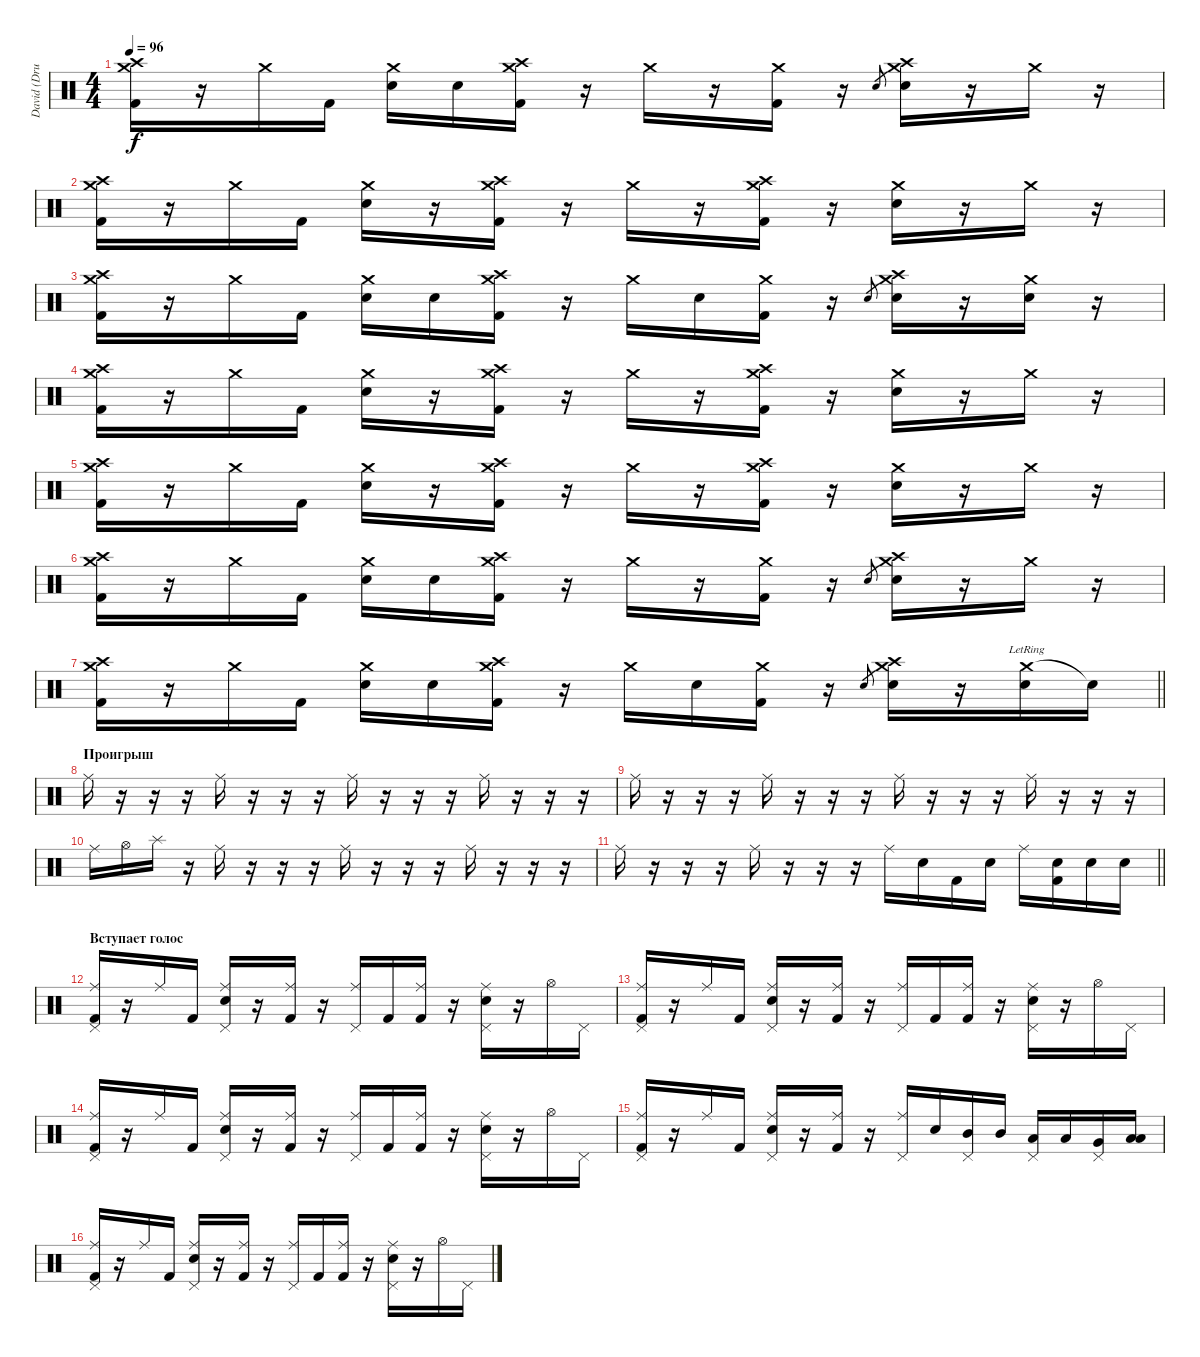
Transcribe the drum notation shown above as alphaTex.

\track ("David (Drums)" "David (Dru") {instrument percussion}
\staff {score}
\articulation defaults
\ts (4 4)
\tempo 96
\clef neutral
\ks c
("Crash high (hit)" "Crash medium (hit)" "Kick (hit) 2").16{dy f} r.16 "Crash medium (hit)".16 "Kick (hit) 2".16 ("Crash medium (hit)" "Electric Snare (hit)").16 "Electric Snare (hit)".16 ("Crash high (hit)" "Crash medium (hit)" "Kick (hit) 2").16 r.16 "Crash medium (hit)".16 r.16 ("Crash medium (hit)" "Kick (hit) 2").16 r.16 "Electric Snare (hit)".8{gr} ("Crash high (hit)" "Crash medium (hit)" "Electric Snare (hit)").16 r.16 "Crash medium (hit)".16 r.16 |
("Crash high (hit)" "Crash medium (hit)" "Kick (hit) 2").16 r.16 "Crash medium (hit)".16 "Kick (hit) 2".16 ("Crash medium (hit)" "Electric Snare (hit)").16 r.16 ("Crash high (hit)" "Crash medium (hit)" "Kick (hit) 2").16 r.16 "Crash medium (hit)".16 r.16 ("Crash high (hit)" "Crash medium (hit)" "Kick (hit) 2").16 r.16 ("Crash medium (hit)" "Electric Snare (hit)").16 r.16 "Crash medium (hit)".16 r.16 |
("Crash high (hit)" "Crash medium (hit)" "Kick (hit) 2").16 r.16 "Crash medium (hit)".16 "Kick (hit) 2".16 ("Crash medium (hit)" "Electric Snare (hit)").16 "Electric Snare (hit)".16 ("Crash high (hit)" "Crash medium (hit)" "Kick (hit) 2").16 r.16 "Crash medium (hit)".16 "Electric Snare (hit)".16 ("Crash medium (hit)" "Kick (hit) 2").16 r.16 "Electric Snare (hit)".8{gr} ("Crash high (hit)" "Crash medium (hit)" "Electric Snare (hit)").16 r.16 ("Crash medium (hit)" "Electric Snare (hit)").16 r.16 |
("Crash high (hit)" "Crash medium (hit)" "Kick (hit) 2").16 r.16 "Crash medium (hit)".16 "Kick (hit) 2".16 ("Crash medium (hit)" "Electric Snare (hit)").16 r.16 ("Crash high (hit)" "Crash medium (hit)" "Kick (hit) 2").16 r.16 "Crash medium (hit)".16 r.16 ("Crash high (hit)" "Crash medium (hit)" "Kick (hit) 2").16 r.16 ("Crash medium (hit)" "Electric Snare (hit)").16 r.16 "Crash medium (hit)".16 r.16 |
("Crash high (hit)" "Crash medium (hit)" "Kick (hit) 2").16 r.16 "Crash medium (hit)".16 "Kick (hit) 2".16 ("Crash medium (hit)" "Electric Snare (hit)").16 r.16 ("Crash high (hit)" "Crash medium (hit)" "Kick (hit) 2").16 r.16 "Crash medium (hit)".16 r.16 ("Crash high (hit)" "Crash medium (hit)" "Kick (hit) 2").16 r.16 ("Crash medium (hit)" "Electric Snare (hit)").16 r.16 "Crash medium (hit)".16 r.16 |
("Crash high (hit)" "Crash medium (hit)" "Kick (hit) 2").16 r.16 "Crash medium (hit)".16 "Kick (hit) 2".16 ("Crash medium (hit)" "Electric Snare (hit)").16 "Electric Snare (hit)".16 ("Crash high (hit)" "Crash medium (hit)" "Kick (hit) 2").16 r.16 "Crash medium (hit)".16 r.16 ("Crash medium (hit)" "Kick (hit) 2").16 r.16 "Electric Snare (hit)".8{gr} ("Crash high (hit)" "Crash medium (hit)" "Electric Snare (hit)").16 r.16 "Crash medium (hit)".16 r.16 |
\barLineRight lightlight
("Crash high (hit)" "Crash medium (hit)" "Kick (hit) 2").16 r.16 "Crash medium (hit)".16 "Kick (hit) 2".16 ("Crash medium (hit)" "Electric Snare (hit)").16 "Electric Snare (hit)".16 ("Crash high (hit)" "Crash medium (hit)" "Kick (hit) 2").16 r.16 "Crash medium (hit)".16 "Electric Snare (hit)".16 ("Crash medium (hit)" "Kick (hit) 2").16 r.16 "Electric Snare (hit)".8{gr} ("Crash high (hit)" "Crash medium (hit)" "Electric Snare (hit)").16 r.16 ("Crash medium (hit)"{lr} "Electric Snare (hit)").16 "Snare (hit)"{t}.16 |
\section ("" "Проигрыш")
"Ride (middle)".16 r.16 r.16 r.16 "Ride (middle)".16 r.16 r.16 r.16 "Ride (middle)".16 r.16 r.16 r.16 "Ride (middle)".16 r.16 r.16 r.16 |
"Ride (middle)".16 r.16 r.16 r.16 "Ride (middle)".16 r.16 r.16 r.16 "Ride (middle)".16 r.16 r.16 r.16 "Ride (middle)".16 r.16 r.16 r.16 |
"Ride (middle)".16 "Hi-Hat (open)".16 "Splash (hit)".16 r.16 "Ride (middle)".16 r.16 r.16 r.16 "Ride (middle)".16 r.16 r.16 r.16 "Ride (middle)".16 r.16 r.16 r.16 |
\barLineRight lightlight "Ride (middle)".16
r.16 r.16 r.16 "Ride (middle)".16 r.16 r.16 r.16 "Ride (middle)".16 "Electric Snare (hit)".16 "Kick (hit) 2".16 "Electric Snare (hit)".16 "Ride (middle)".16 ("Electric Snare (hit)" "Kick (hit) 2").16 "Electric Snare (hit)".16 "Electric Snare (hit)".16 |
\section ("" "Вступает голос")
("Ride (middle)" "Pedal Hi-Hat (hit)" "Kick (hit) 2").16 r.16 "Ride (middle)".16 "Kick (hit) 2".16 ("Ride (middle)" "Pedal Hi-Hat (hit)" "Electric Snare (hit)").16 r.16 ("Ride (middle)" "Kick (hit) 2").16 r.16 ("Ride (middle)" "Pedal Hi-Hat (hit)").16 "Kick (hit) 2".16 ("Ride (middle)" "Kick (hit) 2").16 r.16 ("Ride (middle)" "Pedal Hi-Hat (hit)" "Electric Snare (hit)").16 r.16 "Hi-Hat (open)".16 "Pedal Hi-Hat (hit)".16 |
("Ride (middle)" "Pedal Hi-Hat (hit)" "Kick (hit) 2").16 r.16 "Ride (middle)".16 "Kick (hit) 2".16 ("Ride (middle)" "Pedal Hi-Hat (hit)" "Electric Snare (hit)").16 r.16 ("Ride (middle)" "Kick (hit) 2").16 r.16 ("Ride (middle)" "Pedal Hi-Hat (hit)").16 "Kick (hit) 2".16 ("Ride (middle)" "Kick (hit) 2").16 r.16 ("Ride (middle)" "Pedal Hi-Hat (hit)" "Electric Snare (hit)").16 r.16 "Hi-Hat (open)".16 "Pedal Hi-Hat (hit)".16 |
("Ride (middle)" "Pedal Hi-Hat (hit)" "Kick (hit) 2").16 r.16 "Ride (middle)".16 "Kick (hit) 2".16 ("Ride (middle)" "Pedal Hi-Hat (hit)" "Electric Snare (hit)").16 r.16 ("Ride (middle)" "Kick (hit) 2").16 r.16 ("Ride (middle)" "Pedal Hi-Hat (hit)").16 "Kick (hit) 2".16 ("Ride (middle)" "Kick (hit) 2").16 r.16 ("Ride (middle)" "Pedal Hi-Hat (hit)" "Electric Snare (hit)").16 r.16 "Hi-Hat (open)".16 "Pedal Hi-Hat (hit)".16 |
("Ride (middle)" "Pedal Hi-Hat (hit)" "Kick (hit) 2").16 r.16 "Ride (middle)".16 "Kick (hit) 2".16 ("Ride (middle)" "Pedal Hi-Hat (hit)" "Electric Snare (hit)").16 r.16 ("Ride (middle)" "Kick (hit) 2").16 r.16 ("Ride (middle)" "Pedal Hi-Hat (hit)").16 "Electric Snare (hit)".16 ("Pedal Hi-Hat (hit)" "Mid Tom (hit)").16 "Mid Tom (hit)".16 ("Pedal Hi-Hat (hit)" "Low Tom (hit)").16 "Low Tom (hit)".16 ("Pedal Hi-Hat (hit)" "Very Low Tom (hit)").16 ("Low Floor Tom (hit)" "Low Floor Tom (hit)").16 |
("Ride (middle)" "Pedal Hi-Hat (hit)" "Kick (hit) 2").16 r.16 "Ride (middle)".16 "Kick (hit) 2".16 ("Ride (middle)" "Pedal Hi-Hat (hit)" "Electric Snare (hit)").16 r.16 ("Ride (middle)" "Kick (hit) 2").16 r.16 ("Ride (middle)" "Pedal Hi-Hat (hit)").16 "Kick (hit) 2".16 ("Ride (middle)" "Kick (hit) 2").16 r.16 ("Ride (middle)" "Pedal Hi-Hat (hit)" "Electric Snare (hit)").16 r.16 "Hi-Hat (open)".16 "Pedal Hi-Hat (hit)".16
